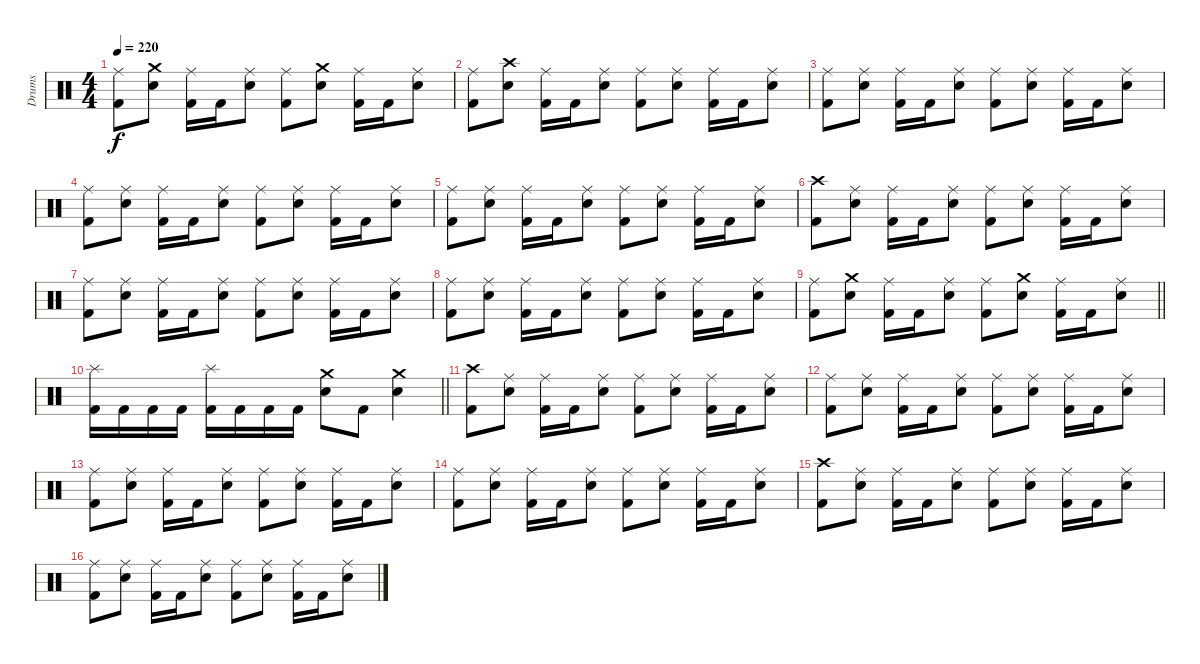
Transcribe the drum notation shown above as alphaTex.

\track ("Drums" "Drums") {instrument percussion}
\staff {score}
\articulation defaults
\ts (4 4)
\tempo 220
\clef neutral
\ks c
("Ride (middle)" "Kick (hit) 2").8{dy f} ("Crash medium (hit)" "Snare (hit) 2").8 ("Ride (middle)" "Kick (hit) 2").16 "Kick (hit) 2".16 ("Ride (middle)" "Snare (hit) 2").8 ("Ride (middle)" "Kick (hit) 2").8 ("Crash medium (hit)" "Snare (hit) 2").8 ("Ride (middle)" "Kick (hit) 2").16 "Kick (hit) 2".16 ("Ride (middle)" "Snare (hit) 2").8 |
("Ride (middle)" "Kick (hit) 2").8 ("Crash high (hit)" "Snare (hit) 2").8 ("Ride (middle)" "Kick (hit) 2").16 "Kick (hit) 2".16 ("Ride (middle)" "Snare (hit) 2").8 ("Ride (middle)" "Kick (hit) 2").8 ("Ride (middle)" "Snare (hit) 2").8 ("Ride (middle)" "Kick (hit) 2").16 "Kick (hit) 2".16 ("Ride (middle)" "Snare (hit) 2").8 |
("Ride (middle)" "Kick (hit) 2").8 ("Ride (middle)" "Snare (hit) 2").8 ("Ride (middle)" "Kick (hit) 2").16 "Kick (hit) 2".16 ("Ride (middle)" "Snare (hit) 2").8 ("Ride (middle)" "Kick (hit) 2").8 ("Ride (middle)" "Snare (hit) 2").8 ("Ride (middle)" "Kick (hit) 2").16 "Kick (hit) 2".16 ("Ride (middle)" "Snare (hit) 2").8 |
("Ride (middle)" "Kick (hit) 2").8 ("Ride (middle)" "Snare (hit) 2").8 ("Ride (middle)" "Kick (hit) 2").16 "Kick (hit) 2".16 ("Ride (middle)" "Snare (hit) 2").8 ("Ride (middle)" "Kick (hit) 2").8 ("Ride (middle)" "Snare (hit) 2").8 ("Ride (middle)" "Kick (hit) 2").16 "Kick (hit) 2".16 ("Ride (middle)" "Snare (hit) 2").8 |
("Ride (middle)" "Kick (hit) 2").8 ("Ride (middle)" "Snare (hit) 2").8 ("Ride (middle)" "Kick (hit) 2").16 "Kick (hit) 2".16 ("Ride (middle)" "Snare (hit) 2").8 ("Ride (middle)" "Kick (hit) 2").8 ("Ride (middle)" "Snare (hit) 2").8 ("Ride (middle)" "Kick (hit) 2").16 "Kick (hit) 2".16 ("Ride (middle)" "Snare (hit) 2").8 |
("Crash high (hit)" "Kick (hit) 2").8 ("Ride (middle)" "Snare (hit) 2").8 ("Ride (middle)" "Kick (hit) 2").16 "Kick (hit) 2".16 ("Ride (middle)" "Snare (hit) 2").8 ("Ride (middle)" "Kick (hit) 2").8 ("Ride (middle)" "Snare (hit) 2").8 ("Ride (middle)" "Kick (hit) 2").16 "Kick (hit) 2".16 ("Ride (middle)" "Snare (hit) 2").8 |
("Ride (middle)" "Kick (hit) 2").8 ("Ride (middle)" "Snare (hit) 2").8 ("Ride (middle)" "Kick (hit) 2").16 "Kick (hit) 2".16 ("Ride (middle)" "Snare (hit) 2").8 ("Ride (middle)" "Kick (hit) 2").8 ("Ride (middle)" "Snare (hit) 2").8 ("Ride (middle)" "Kick (hit) 2").16 "Kick (hit) 2".16 ("Ride (middle)" "Snare (hit) 2").8 |
("Ride (middle)" "Kick (hit) 2").8 ("Ride (middle)" "Snare (hit) 2").8 ("Ride (middle)" "Kick (hit) 2").16 "Kick (hit) 2".16 ("Ride (middle)" "Snare (hit) 2").8 ("Ride (middle)" "Kick (hit) 2").8 ("Ride (middle)" "Snare (hit) 2").8 ("Ride (middle)" "Kick (hit) 2").16 "Kick (hit) 2".16 ("Ride (middle)" "Snare (hit) 2").8 |
\barLineRight lightlight
("Ride (middle)" "Kick (hit) 2").8 ("Crash medium (hit)" "Snare (hit) 2").8 ("Ride (middle)" "Kick (hit) 2").16 "Kick (hit) 2".16 ("Ride (middle)" "Snare (hit) 2").8 ("Ride (middle)" "Kick (hit) 2").8 ("Crash medium (hit)" "Snare (hit) 2").8 ("Ride (middle)" "Kick (hit) 2").16 "Kick (hit) 2".16 ("Ride (middle)" "Snare (hit) 2").8 |
\section ("" "")
\barLineRight lightlight
("Splash (hit)" "Kick (hit) 2").16 "Kick (hit) 2".16 "Kick (hit) 2".16 "Kick (hit) 2".16 ("Splash (hit)" "Kick (hit) 2").16 "Kick (hit) 2".16 "Kick (hit) 2".16 "Kick (hit) 2".16 ("Crash medium (hit)" "Snare (hit) 2").8 "Kick (hit) 2".8 ("Crash medium (hit)" "Snare (hit) 2").4 |
\section ("" "")
("Crash high (hit)" "Kick (hit) 2").8 ("Ride (middle)" "Snare (hit) 2").8 ("Ride (middle)" "Kick (hit) 2").16 "Kick (hit) 2".16 ("Ride (middle)" "Snare (hit) 2").8 ("Ride (middle)" "Kick (hit) 2").8 ("Ride (middle)" "Snare (hit) 2").8 ("Ride (middle)" "Kick (hit) 2").16 "Kick (hit) 2".16 ("Ride (middle)" "Snare (hit) 2").8 |
("Ride (middle)" "Kick (hit) 2").8 ("Ride (middle)" "Snare (hit) 2").8 ("Ride (middle)" "Kick (hit) 2").16 "Kick (hit) 2".16 ("Ride (middle)" "Snare (hit) 2").8 ("Ride (middle)" "Kick (hit) 2").8 ("Ride (middle)" "Snare (hit) 2").8 ("Ride (middle)" "Kick (hit) 2").16 "Kick (hit) 2".16 ("Ride (middle)" "Snare (hit) 2").8 |
("Ride (middle)" "Kick (hit) 2").8 ("Ride (middle)" "Snare (hit) 2").8 ("Ride (middle)" "Kick (hit) 2").16 "Kick (hit) 2".16 ("Ride (middle)" "Snare (hit) 2").8 ("Ride (middle)" "Kick (hit) 2").8 ("Ride (middle)" "Snare (hit) 2").8 ("Ride (middle)" "Kick (hit) 2").16 "Kick (hit) 2".16 ("Ride (middle)" "Snare (hit) 2").8 |
("Ride (middle)" "Kick (hit) 2").8 ("Ride (middle)" "Snare (hit) 2").8 ("Ride (middle)" "Kick (hit) 2").16 "Kick (hit) 2".16 ("Ride (middle)" "Snare (hit) 2").8 ("Ride (middle)" "Kick (hit) 2").8 ("Ride (middle)" "Snare (hit) 2").8 ("Ride (middle)" "Kick (hit) 2").16 "Kick (hit) 2".16 ("Ride (middle)" "Snare (hit) 2").8 |
("Crash high (hit)" "Kick (hit) 2").8 ("Ride (middle)" "Snare (hit) 2").8 ("Ride (middle)" "Kick (hit) 2").16 "Kick (hit) 2".16 ("Ride (middle)" "Snare (hit) 2").8 ("Ride (middle)" "Kick (hit) 2").8 ("Ride (middle)" "Snare (hit) 2").8 ("Ride (middle)" "Kick (hit) 2").16 "Kick (hit) 2".16 ("Ride (middle)" "Snare (hit) 2").8 |
("Ride (middle)" "Kick (hit) 2").8 ("Ride (middle)" "Snare (hit) 2").8 ("Ride (middle)" "Kick (hit) 2").16 "Kick (hit) 2".16 ("Ride (middle)" "Snare (hit) 2").8 ("Ride (middle)" "Kick (hit) 2").8 ("Ride (middle)" "Snare (hit) 2").8 ("Ride (middle)" "Kick (hit) 2").16 "Kick (hit) 2".16 ("Ride (middle)" "Snare (hit) 2").8
